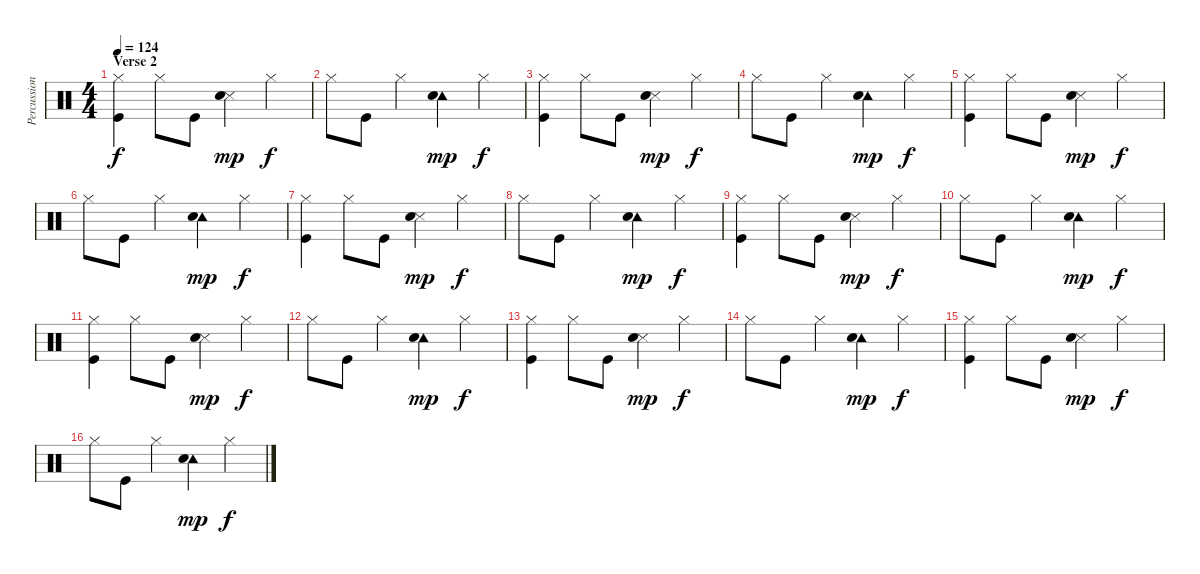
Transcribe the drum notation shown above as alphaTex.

\track ("Percussion" "Percussion") {instrument percussion}
\staff {score}
\articulation defaults
\ts (4 4)
\section ("" "Verse 2")
\tempo 124
\clef neutral
\ks c
("Hi-Hat (closed)" "Kick (hit)").4{dy f} "Hi-Hat (closed)".8 "Kick (hit)".8 ("Snare (side stick) 3" "Snare (hit) 2").4{dy mp} "Hi-Hat (closed)".4{dy f} |
"Hi-Hat (closed)".8 "Kick (hit)".8 "Hi-Hat (closed)".4 ("Tambourine (hit)" "Snare (hit) 2").4{dy mp} "Hi-Hat (closed)".4{dy f} |
("Hi-Hat (closed)" "Kick (hit)").4 "Hi-Hat (closed)".8 "Kick (hit)".8 ("Snare (side stick) 3" "Snare (hit) 2").4{dy mp} "Hi-Hat (closed)".4{dy f} |
"Hi-Hat (closed)".8 "Kick (hit)".8 "Hi-Hat (closed)".4 ("Tambourine (hit)" "Snare (hit) 2").4{dy mp} "Hi-Hat (closed)".4{dy f} |
("Hi-Hat (closed)" "Kick (hit)").4 "Hi-Hat (closed)".8 "Kick (hit)".8 ("Snare (side stick) 3" "Snare (hit) 2").4{dy mp} "Hi-Hat (closed)".4{dy f} |
"Hi-Hat (closed)".8 "Kick (hit)".8 "Hi-Hat (closed)".4 ("Tambourine (hit)" "Snare (hit) 2").4{dy mp} "Hi-Hat (closed)".4{dy f} |
("Hi-Hat (closed)" "Kick (hit)").4 "Hi-Hat (closed)".8 "Kick (hit)".8 ("Snare (side stick) 3" "Snare (hit) 2").4{dy mp} "Hi-Hat (closed)".4{dy f} |
"Hi-Hat (closed)".8 "Kick (hit)".8 "Hi-Hat (closed)".4 ("Tambourine (hit)" "Snare (hit) 2").4{dy mp} "Hi-Hat (closed)".4{dy f} |
("Hi-Hat (closed)" "Kick (hit)").4 "Hi-Hat (closed)".8 "Kick (hit)".8 ("Snare (side stick) 3" "Snare (hit) 2").4{dy mp} "Hi-Hat (closed)".4{dy f} |
"Hi-Hat (closed)".8 "Kick (hit)".8 "Hi-Hat (closed)".4 ("Tambourine (hit)" "Snare (hit) 2").4{dy mp} "Hi-Hat (closed)".4{dy f} |
("Hi-Hat (closed)" "Kick (hit)").4 "Hi-Hat (closed)".8 "Kick (hit)".8 ("Snare (side stick) 3" "Snare (hit) 2").4{dy mp} "Hi-Hat (closed)".4{dy f} |
"Hi-Hat (closed)".8 "Kick (hit)".8 "Hi-Hat (closed)".4 ("Tambourine (hit)" "Snare (hit) 2").4{dy mp} "Hi-Hat (closed)".4{dy f} |
("Hi-Hat (closed)" "Kick (hit)").4 "Hi-Hat (closed)".8 "Kick (hit)".8 ("Snare (side stick) 3" "Snare (hit) 2").4{dy mp} "Hi-Hat (closed)".4{dy f} |
"Hi-Hat (closed)".8 "Kick (hit)".8 "Hi-Hat (closed)".4 ("Tambourine (hit)" "Snare (hit) 2").4{dy mp} "Hi-Hat (closed)".4{dy f} |
("Hi-Hat (closed)" "Kick (hit)").4 "Hi-Hat (closed)".8 "Kick (hit)".8 ("Snare (side stick) 3" "Snare (hit) 2").4{dy mp} "Hi-Hat (closed)".4{dy f} |
"Hi-Hat (closed)".8 "Kick (hit)".8 "Hi-Hat (closed)".4 ("Tambourine (hit)" "Snare (hit) 2").4{dy mp} "Hi-Hat (closed)".4{dy f}
